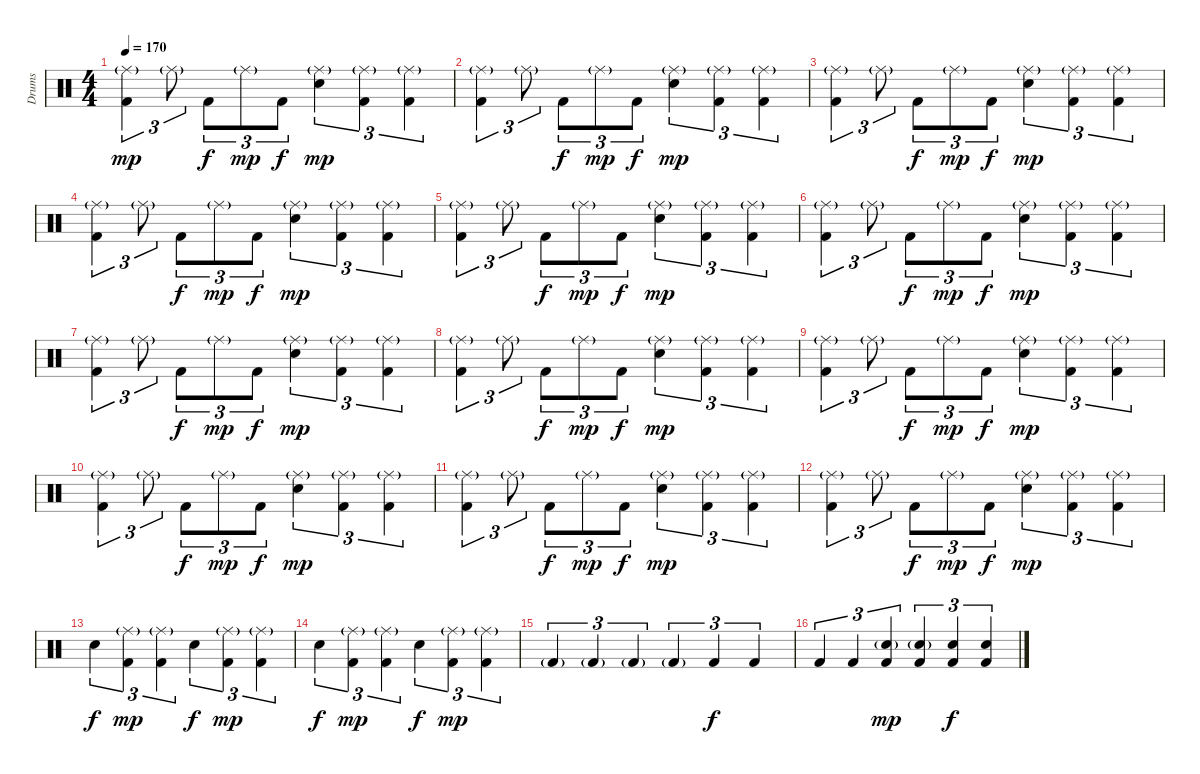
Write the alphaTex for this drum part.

\track ("Drums" "Drums") {instrument percussion}
\staff {score}
\articulation defaults
\ts (4 4)
\tempo 170
\clef neutral
\ks c
("Ride (middle)"{g} "Kick (hit) 2").4{tu (3 2) dy mp} "Ride (middle)"{g}.8{tu (3 2)} "Kick (hit) 2".8{tu (3 2) dy f} "Ride (middle)"{g}.8{tu (3 2) dy mp} "Kick (hit) 2".8{tu (3 2) dy f} ("Ride (middle)"{g} "Electric Snare (hit)").4{tu (3 2) dy mp} ("Ride (middle)"{g} "Kick (hit) 2").4{tu (3 2)} ("Ride (middle)"{g} "Kick (hit) 2").4{tu (3 2)} |
("Ride (middle)"{g} "Kick (hit) 2").4{tu (3 2)} "Ride (middle)"{g}.8{tu (3 2)} "Kick (hit) 2".8{tu (3 2) dy f} "Ride (middle)"{g}.8{tu (3 2) dy mp} "Kick (hit) 2".8{tu (3 2) dy f} ("Ride (middle)"{g} "Electric Snare (hit)").4{tu (3 2) dy mp} ("Ride (middle)"{g} "Kick (hit) 2").4{tu (3 2)} ("Ride (middle)"{g} "Kick (hit) 2").4{tu (3 2)} |
("Ride (middle)"{g} "Kick (hit) 2").4{tu (3 2)} "Ride (middle)"{g}.8{tu (3 2)} "Kick (hit) 2".8{tu (3 2) dy f} "Ride (middle)"{g}.8{tu (3 2) dy mp} "Kick (hit) 2".8{tu (3 2) dy f} ("Ride (middle)"{g} "Electric Snare (hit)").4{tu (3 2) dy mp} ("Ride (middle)"{g} "Kick (hit) 2").4{tu (3 2)} ("Ride (middle)"{g} "Kick (hit) 2").4{tu (3 2)} |
("Ride (middle)"{g} "Kick (hit) 2").4{tu (3 2)} "Ride (middle)"{g}.8{tu (3 2)} "Kick (hit) 2".8{tu (3 2) dy f} "Ride (middle)"{g}.8{tu (3 2) dy mp} "Kick (hit) 2".8{tu (3 2) dy f} ("Ride (middle)"{g} "Electric Snare (hit)").4{tu (3 2) dy mp} ("Ride (middle)"{g} "Kick (hit) 2").4{tu (3 2)} ("Ride (middle)"{g} "Kick (hit) 2").4{tu (3 2)} |
("Ride (middle)"{g} "Kick (hit) 2").4{tu (3 2)} "Ride (middle)"{g}.8{tu (3 2)} "Kick (hit) 2".8{tu (3 2) dy f} "Ride (middle)"{g}.8{tu (3 2) dy mp} "Kick (hit) 2".8{tu (3 2) dy f} ("Ride (middle)"{g} "Electric Snare (hit)").4{tu (3 2) dy mp} ("Ride (middle)"{g} "Kick (hit) 2").4{tu (3 2)} ("Ride (middle)"{g} "Kick (hit) 2").4{tu (3 2)} |
("Ride (middle)"{g} "Kick (hit) 2").4{tu (3 2)} "Ride (middle)"{g}.8{tu (3 2)} "Kick (hit) 2".8{tu (3 2) dy f} "Ride (middle)"{g}.8{tu (3 2) dy mp} "Kick (hit) 2".8{tu (3 2) dy f} ("Ride (middle)"{g} "Electric Snare (hit)").4{tu (3 2) dy mp} ("Ride (middle)"{g} "Kick (hit) 2").4{tu (3 2)} ("Ride (middle)"{g} "Kick (hit) 2").4{tu (3 2)} |
("Ride (middle)"{g} "Kick (hit) 2").4{tu (3 2)} "Ride (middle)"{g}.8{tu (3 2)} "Kick (hit) 2".8{tu (3 2) dy f} "Ride (middle)"{g}.8{tu (3 2) dy mp} "Kick (hit) 2".8{tu (3 2) dy f} ("Ride (middle)"{g} "Electric Snare (hit)").4{tu (3 2) dy mp} ("Ride (middle)"{g} "Kick (hit) 2").4{tu (3 2)} ("Ride (middle)"{g} "Kick (hit) 2").4{tu (3 2)} |
("Ride (middle)"{g} "Kick (hit) 2").4{tu (3 2)} "Ride (middle)"{g}.8{tu (3 2)} "Kick (hit) 2".8{tu (3 2) dy f} "Ride (middle)"{g}.8{tu (3 2) dy mp} "Kick (hit) 2".8{tu (3 2) dy f} ("Ride (middle)"{g} "Electric Snare (hit)").4{tu (3 2) dy mp} ("Ride (middle)"{g} "Kick (hit) 2").4{tu (3 2)} ("Ride (middle)"{g} "Kick (hit) 2").4{tu (3 2)} |
("Ride (middle)"{g} "Kick (hit) 2").4{tu (3 2)} "Ride (middle)"{g}.8{tu (3 2)} "Kick (hit) 2".8{tu (3 2) dy f} "Ride (middle)"{g}.8{tu (3 2) dy mp} "Kick (hit) 2".8{tu (3 2) dy f} ("Ride (middle)"{g} "Electric Snare (hit)").4{tu (3 2) dy mp} ("Ride (middle)"{g} "Kick (hit) 2").4{tu (3 2)} ("Ride (middle)"{g} "Kick (hit) 2").4{tu (3 2)} |
("Ride (middle)"{g} "Kick (hit) 2").4{tu (3 2)} "Ride (middle)"{g}.8{tu (3 2)} "Kick (hit) 2".8{tu (3 2) dy f} "Ride (middle)"{g}.8{tu (3 2) dy mp} "Kick (hit) 2".8{tu (3 2) dy f} ("Ride (middle)"{g} "Electric Snare (hit)").4{tu (3 2) dy mp} ("Ride (middle)"{g} "Kick (hit) 2").4{tu (3 2)} ("Ride (middle)"{g} "Kick (hit) 2").4{tu (3 2)} |
("Ride (middle)"{g} "Kick (hit) 2").4{tu (3 2)} "Ride (middle)"{g}.8{tu (3 2)} "Kick (hit) 2".8{tu (3 2) dy f} "Ride (middle)"{g}.8{tu (3 2) dy mp} "Kick (hit) 2".8{tu (3 2) dy f} ("Ride (middle)"{g} "Electric Snare (hit)").4{tu (3 2) dy mp} ("Ride (middle)"{g} "Kick (hit) 2").4{tu (3 2)} ("Ride (middle)"{g} "Kick (hit) 2").4{tu (3 2)} |
("Ride (middle)"{g} "Kick (hit) 2").4{tu (3 2)} "Ride (middle)"{g}.8{tu (3 2)} "Kick (hit) 2".8{tu (3 2) dy f} "Ride (middle)"{g}.8{tu (3 2) dy mp} "Kick (hit) 2".8{tu (3 2) dy f} ("Ride (middle)"{g} "Electric Snare (hit)").4{tu (3 2) dy mp} ("Ride (middle)"{g} "Kick (hit) 2").4{tu (3 2)} ("Ride (middle)"{g} "Kick (hit) 2").4{tu (3 2)} |
"Electric Snare (hit)".4{tu (3 2) dy f} ("Ride (middle)"{g} "Kick (hit) 2").4{tu (3 2) dy mp} ("Ride (middle)"{g} "Kick (hit) 2").4{tu (3 2)} "Electric Snare (hit)".4{tu (3 2) dy f} ("Ride (middle)"{g} "Kick (hit) 2").4{tu (3 2) dy mp} ("Ride (middle)"{g} "Kick (hit) 2").4{tu (3 2)} |
"Electric Snare (hit)".4{tu (3 2) dy f} ("Ride (middle)"{g} "Kick (hit) 2").4{tu (3 2) dy mp} ("Ride (middle)"{g} "Kick (hit) 2").4{tu (3 2)} "Electric Snare (hit)".4{tu (3 2) dy f} ("Ride (middle)"{g} "Kick (hit) 2").4{tu (3 2) dy mp} ("Ride (middle)"{g} "Kick (hit) 2").4{tu (3 2)} |
"Kick (hit) 2"{g}.4{tu (3 2)} "Kick (hit) 2"{g}.4{tu (3 2)} "Kick (hit) 2"{g}.4{tu (3 2)} "Kick (hit) 2"{g}.4{tu (3 2)} "Kick (hit) 2".4{tu (3 2) dy f} "Kick (hit) 2".4{tu (3 2)} |
"Kick (hit) 2".4{tu (3 2)} "Kick (hit) 2".4{tu (3 2)} ("Electric Snare (hit)"{g} "Kick (hit) 2").4{tu (3 2) dy mp} ("Electric Snare (hit)"{g} "Kick (hit) 2").4{tu (3 2)} ("Electric Snare (hit)" "Kick (hit) 2").4{tu (3 2) dy f} ("Electric Snare (hit)" "Kick (hit) 2").4{tu (3 2)}
